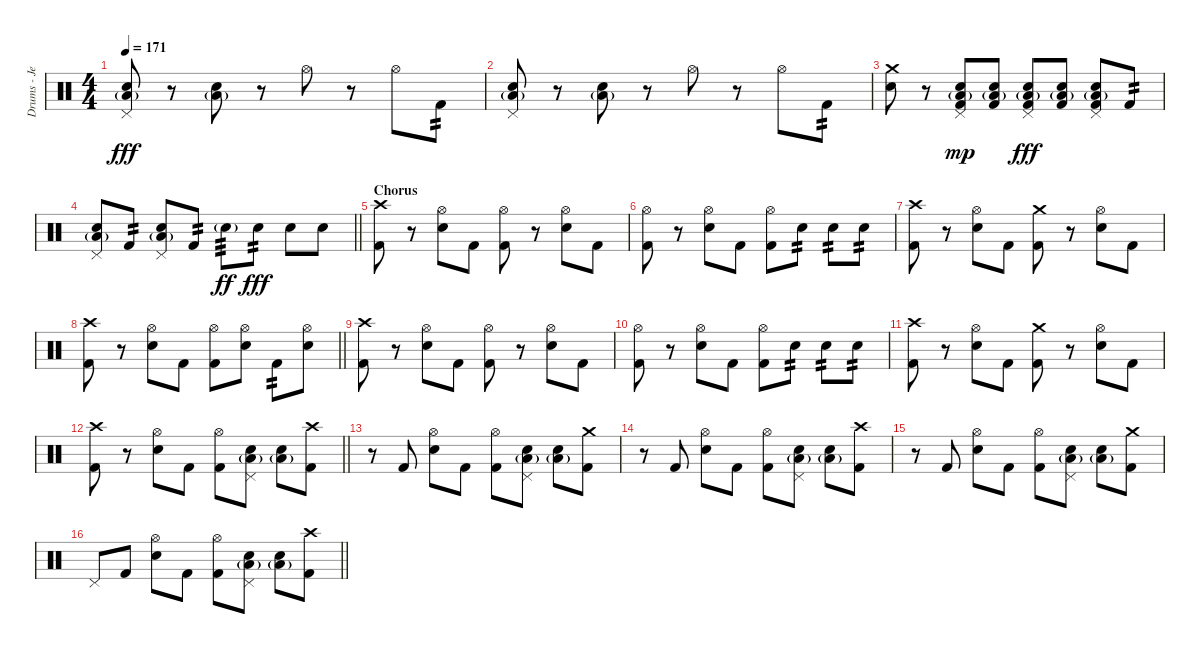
\track ("Drums - Jerinx" "Drums - Je") {instrument percussion}
\staff {score}
\articulation defaults
\ts (4 4)
\tempo 171
\clef neutral
\ks c
("Pedal Hi-Hat (hit)" "Snare (hit) 2" "Low Floor Tom (hit)"{g}).8{dy fff} r.8 ("Snare (hit) 2" "Low Floor Tom (hit)"{g}).8 r.8 "Hi-Hat (open)".8 r.8 "Hi-Hat (open)".8 "Kick (hit) 2".8{tp 2} |
("Pedal Hi-Hat (hit)" "Snare (hit) 2" "Low Floor Tom (hit)"{g}).8 r.8 ("Snare (hit) 2" "Low Floor Tom (hit)"{g}).8 r.8 "Hi-Hat (open)".8 r.8 "Hi-Hat (open)".8 "Kick (hit) 2".8{tp 2} |
("Snare (hit) 2" "Crash medium (hit)").8 r.8 ("Pedal Hi-Hat (hit)" "Snare (hit) 2" "Kick (hit) 2" "Low Floor Tom (hit)"{g}).8{dy mp} ("Snare (hit) 2" "Kick (hit) 2" "Low Floor Tom (hit)"{g}).8 ("Pedal Hi-Hat (hit)" "Snare (hit) 2" "Kick (hit) 2" "Low Floor Tom (hit)"{g}).8{dy fff} ("Snare (hit) 2" "Kick (hit) 2" "Low Floor Tom (hit)"{g}).8 ("Pedal Hi-Hat (hit)" "Snare (hit) 2" "Kick (hit) 2" "Low Floor Tom (hit)"{g}).8 "Kick (hit) 2".8{tp 2} |
\barLineRight lightlight
("Pedal Hi-Hat (hit)" "Snare (hit) 2" "Low Floor Tom (hit)"{g}).8 "Kick (hit) 2".8{tp 2} ("Pedal Hi-Hat (hit)" "Snare (hit) 2" "Low Floor Tom (hit)"{g}).8 "Kick (hit) 2".8{tp 2} "Snare (hit) 2"{g}.8{tp 3 dy ff} "Snare (hit) 2".8{tp 2 dy fff} "Snare (hit) 2".8 "Snare (hit) 2".8 |
\section ("" "Chorus")
("Kick (hit) 2" "Crash high (hit)").8 r.8 ("Hi-Hat (open)" "Snare (hit) 2").8 "Kick (hit) 2".8 ("Hi-Hat (open)" "Kick (hit) 2").8 r.8 ("Hi-Hat (open)" "Snare (hit) 2").8 "Kick (hit) 2".8 |
("Hi-Hat (open)" "Kick (hit) 2").8 r.8 ("Hi-Hat (open)" "Snare (hit) 2").8 "Kick (hit) 2".8 ("Hi-Hat (open)" "Kick (hit) 2").8 "Snare (hit) 2".8{tp 2} "Snare (hit) 2".8{tp 2} "Snare (hit) 2".8{tp 2} |
("Kick (hit) 2" "Crash high (hit)").8 r.8 ("Hi-Hat (open)" "Snare (hit) 2").8 "Kick (hit) 2".8 ("Kick (hit) 2" "Crash medium (hit)").8 r.8 ("Hi-Hat (open)" "Snare (hit) 2").8 "Kick (hit) 2".8 |
\barLineRight lightlight
("Kick (hit) 2" "Crash high (hit)").8 r.8 ("Hi-Hat (open)" "Snare (hit) 2").8 "Kick (hit) 2".8 ("Hi-Hat (open)" "Kick (hit) 2").8 ("Hi-Hat (open)" "Snare (hit) 2").8 "Kick (hit) 2".8{tp 2} ("Hi-Hat (open)" "Snare (hit) 2").8 |
("Kick (hit) 2" "Crash high (hit)").8 r.8 ("Hi-Hat (open)" "Snare (hit) 2").8 "Kick (hit) 2".8 ("Hi-Hat (open)" "Kick (hit) 2").8 r.8 ("Hi-Hat (open)" "Snare (hit) 2").8 "Kick (hit) 2".8 |
("Hi-Hat (open)" "Kick (hit) 2").8 r.8 ("Hi-Hat (open)" "Snare (hit) 2").8 "Kick (hit) 2".8 ("Hi-Hat (open)" "Kick (hit) 2").8 "Snare (hit) 2".8{tp 2} "Snare (hit) 2".8{tp 2} "Snare (hit) 2".8{tp 2} |
("Kick (hit) 2" "Crash high (hit)").8 r.8 ("Hi-Hat (open)" "Snare (hit) 2").8 "Kick (hit) 2".8 ("Kick (hit) 2" "Crash medium (hit)").8 r.8 ("Hi-Hat (open)" "Snare (hit) 2").8 "Kick (hit) 2".8 |
\barLineRight lightlight
("Kick (hit) 2" "Crash high (hit)").8 r.8 ("Hi-Hat (open)" "Snare (hit) 2").8 "Kick (hit) 2".8 ("Hi-Hat (open)" "Kick (hit) 2").8 ("Pedal Hi-Hat (hit)" "Snare (hit) 2" "Low Floor Tom (hit)"{g}).8 ("Snare (hit) 2" "Low Floor Tom (hit)"{g}).8 ("Kick (hit) 2" "Crash high (hit)").8 |
r.8 "Kick (hit) 2".8 ("Hi-Hat (open)" "Snare (hit) 2").8 "Kick (hit) 2".8 ("Hi-Hat (open)" "Kick (hit) 2").8 ("Pedal Hi-Hat (hit)" "Snare (hit) 2" "Low Floor Tom (hit)"{g}).8 ("Snare (hit) 2" "Low Floor Tom (hit)"{g}).8 ("Kick (hit) 2" "Crash medium (hit)").8 |
r.8 "Kick (hit) 2".8 ("Hi-Hat (open)" "Snare (hit) 2").8 "Kick (hit) 2".8 ("Hi-Hat (open)" "Kick (hit) 2").8 ("Pedal Hi-Hat (hit)" "Snare (hit) 2" "Low Floor Tom (hit)"{g}).8 ("Snare (hit) 2" "Low Floor Tom (hit)"{g}).8 ("Kick (hit) 2" "Crash high (hit)").8 |
r.8 "Kick (hit) 2".8 ("Hi-Hat (open)" "Snare (hit) 2").8 "Kick (hit) 2".8 ("Hi-Hat (open)" "Kick (hit) 2").8 ("Pedal Hi-Hat (hit)" "Snare (hit) 2" "Low Floor Tom (hit)"{g}).8 ("Snare (hit) 2" "Low Floor Tom (hit)"{g}).8 ("Kick (hit) 2" "Crash medium (hit)").8 |
\barLineRight lightlight "Pedal Hi-Hat (hit)".8 "Kick (hit) 2".8
("Hi-Hat (open)" "Snare (hit) 2").8 "Kick (hit) 2".8 ("Hi-Hat (open)" "Kick (hit) 2").8 ("Pedal Hi-Hat (hit)" "Snare (hit) 2" "Low Floor Tom (hit)"{g}).8 ("Snare (hit) 2" "Low Floor Tom (hit)"{g}).8 ("Kick (hit) 2" "Crash high (hit)").8
